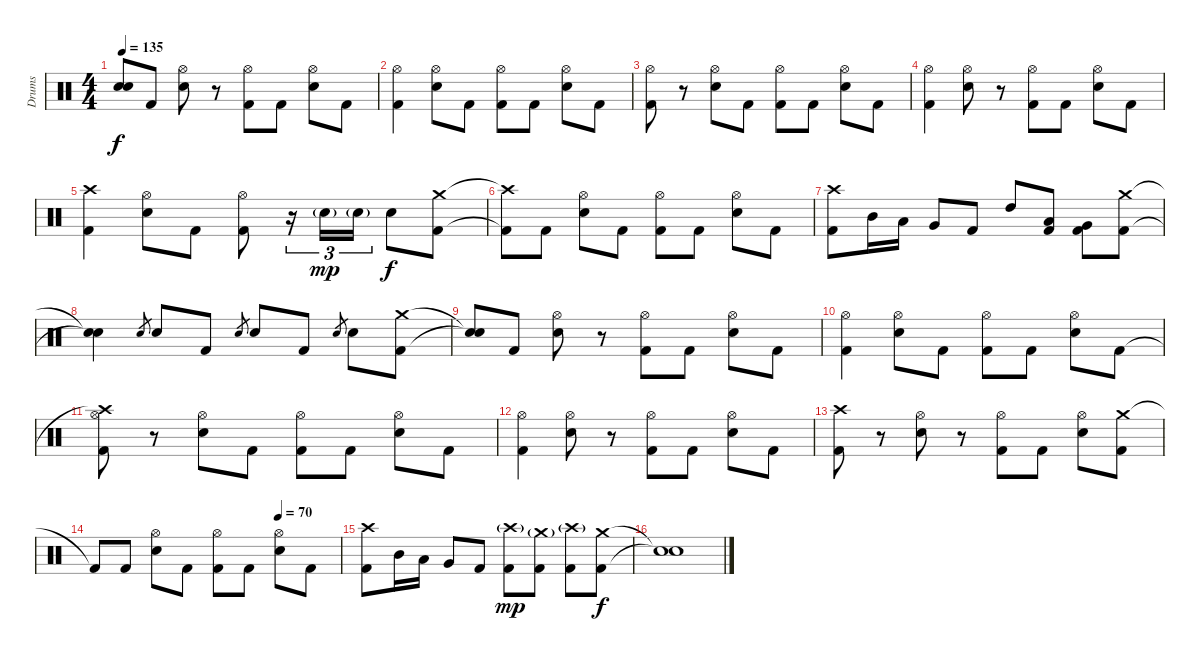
\track ("Drums" "Drums") {instrument percussion}
\staff {score}
\articulation defaults
\ts (4 4)
\tempo 135
\clef neutral
\ks c
("Snare (hit)"{t} "Snare (hit)"{t}).8{dy f} "Kick (hit) 2".8 ("Hi-Hat (open)" "Electric Snare (hit)").8 r.8 ("Hi-Hat (open)" "Kick (hit) 2").8 "Kick (hit) 2".8 ("Hi-Hat (open)" "Electric Snare (hit)").8 "Kick (hit) 2".8 |
("Hi-Hat (open)" "Kick (hit) 2").4 ("Hi-Hat (open)" "Electric Snare (hit)").8 "Kick (hit) 2".8 ("Hi-Hat (open)" "Kick (hit) 2").8 "Kick (hit) 2".8 ("Hi-Hat (open)" "Electric Snare (hit)").8 "Kick (hit) 2".8 |
("Hi-Hat (open)" "Kick (hit) 2").8 r.8 ("Hi-Hat (open)" "Electric Snare (hit)").8 "Kick (hit) 2".8 ("Hi-Hat (open)" "Kick (hit) 2").8 "Kick (hit) 2".8 ("Hi-Hat (open)" "Electric Snare (hit)").8 "Kick (hit) 2".8 |
("Hi-Hat (open)" "Kick (hit) 2").4 ("Hi-Hat (open)" "Electric Snare (hit)").8 r.8 ("Hi-Hat (open)" "Kick (hit) 2").8 "Kick (hit) 2".8 ("Hi-Hat (open)" "Electric Snare (hit)").8 "Kick (hit) 2".8 |
("Crash high (hit)" "Kick (hit) 2").4 ("Hi-Hat (open)" "Electric Snare (hit)").8 "Kick (hit) 2".8 ("Hi-Hat (open)" "Kick (hit) 2").8 r.16{tu (3 2)} "Electric Snare (hit)"{g}.16{tu (3 2) dy mp} "Electric Snare (hit)"{g}.16{tu (3 2)} "Electric Snare (hit)".8{dy f} ("Crash medium (hit)" "Kick (hit) 2").8 |
("Crash high (hit)"{t} "Kick (hit) 2"{t}).8 "Kick (hit) 2".8 ("Hi-Hat (open)" "Electric Snare (hit)").8 "Kick (hit) 2".8 ("Hi-Hat (open)" "Kick (hit) 2").8 "Kick (hit) 2".8 ("Hi-Hat (open)" "Electric Snare (hit)").8 "Kick (hit) 2".8 |
("Crash high (hit)" "Kick (hit) 2").8 "Mid Tom (hit)".16 "Low Tom (hit)".16 "Very Low Tom (hit)".8 "Kick (hit) 2".8 "High Tom (hit)".8 ("Low Tom (hit)" "Kick (hit) 2").8 ("Very Low Tom (hit)" "Kick (hit) 2").8 ("Crash medium (hit)" "Kick (hit) 2").8 |
("Snare (hit)"{t} "Snare (hit)"{t}).4 "Electric Snare (hit)".8{gr} "Electric Snare (hit)".8 "Kick (hit) 2".8 "Electric Snare (hit)".8{gr} "Electric Snare (hit)".8 "Kick (hit) 2".8 "Electric Snare (hit)".8{gr} "Electric Snare (hit)".8 ("Crash medium (hit)" "Kick (hit) 2").8 |
("Snare (hit)"{t} "Snare (hit)"{t}).8 "Kick (hit) 2".8 ("Hi-Hat (open)" "Electric Snare (hit)").8 r.8 ("Hi-Hat (open)" "Kick (hit) 2").8 "Kick (hit) 2".8 ("Hi-Hat (open)" "Electric Snare (hit)").8 "Kick (hit) 2".8 |
("Hi-Hat (open)" "Kick (hit) 2").4 ("Hi-Hat (open)" "Electric Snare (hit)").8 "Kick (hit) 2".8 ("Hi-Hat (open)" "Kick (hit) 2").8 "Kick (hit) 2".8 ("Hi-Hat (open)" "Electric Snare (hit)").8 "Kick (hit) 2".8 |
("Crash high (hit)"{t} "Hi-Hat (open)" "Kick (hit) 2").8 r.8 ("Hi-Hat (open)" "Electric Snare (hit)").8 "Kick (hit) 2".8 ("Hi-Hat (open)" "Kick (hit) 2").8 "Kick (hit) 2".8 ("Hi-Hat (open)" "Electric Snare (hit)").8 "Kick (hit) 2".8 |
("Hi-Hat (open)" "Kick (hit) 2").4 ("Hi-Hat (open)" "Electric Snare (hit)").8 r.8 ("Hi-Hat (open)" "Kick (hit) 2").8 "Kick (hit) 2".8 ("Hi-Hat (open)" "Electric Snare (hit)").8 "Kick (hit) 2".8 |
("Crash high (hit)" "Kick (hit) 2").8 r.8 ("Hi-Hat (open)" "Electric Snare (hit)").8 r.8 ("Hi-Hat (open)" "Kick (hit) 2").8 "Kick (hit) 2".8 ("Hi-Hat (open)" "Electric Snare (hit)").8 ("Crash medium (hit)" "Kick (hit) 2").8 |
\tempo (70 0.75)
"Kick (hit) 2"{t}.8 "Kick (hit) 2".8 ("Hi-Hat (open)" "Electric Snare (hit)").8 "Kick (hit) 2".8 ("Hi-Hat (open)" "Kick (hit) 2").8 "Kick (hit) 2".8 ("Hi-Hat (open)" "Electric Snare (hit)").8 "Kick (hit) 2".8 |
("Crash high (hit)" "Kick (hit) 2").8 "Mid Tom (hit)".16 "Low Tom (hit)".16 "Very Low Tom (hit)".8 "Kick (hit) 2".8 ("Crash high (hit)"{g} "Kick (hit) 2").8{dy mp} ("Crash medium (hit)"{g} "Kick (hit) 2").8 ("Crash high (hit)"{g} "Kick (hit) 2").8 ("Crash medium (hit)" "Kick (hit) 2").8{dy f} |
("Snare (hit)"{t} "Snare (hit)"{t}).1
